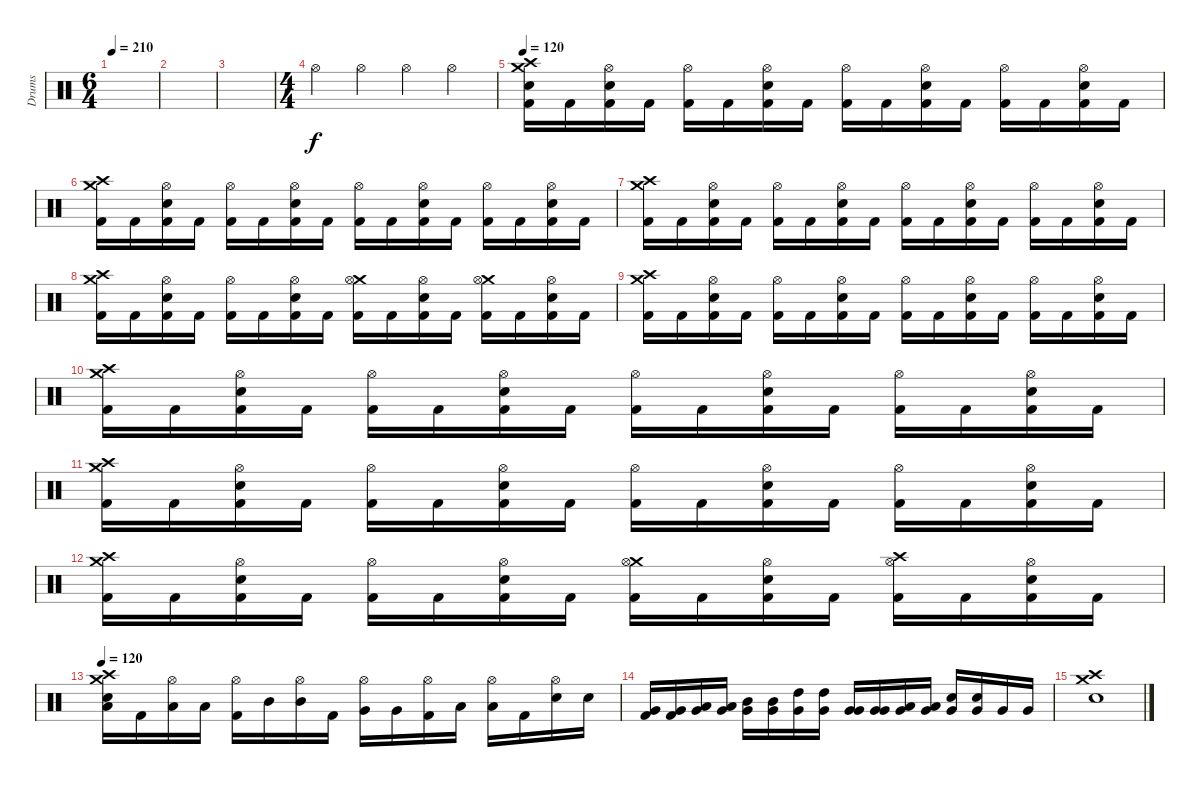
\track ("Drums" "Drums") {instrument percussion}
\staff {score}
\articulation defaults
\ts (6 4)
\tempo 210
\clef neutral
\ks c
|
|
|
\ts (4 4)
"Hi-Hat (open)".4 "Hi-Hat (open)".4 "Hi-Hat (open)".4 "Hi-Hat (open)".4 |
\tempo 120
("Electric Snare (hit)" "Crash high (hit)" "Crash medium (hit)" "Kick (hit) 2").16 "Kick (hit) 2".16 ("Electric Snare (hit)" "Hi-Hat (open)" "Kick (hit) 2").16 "Kick (hit) 2".16 ("Hi-Hat (open)" "Kick (hit) 2").16 "Kick (hit) 2".16 ("Electric Snare (hit)" "Hi-Hat (open)" "Kick (hit) 2").16 "Kick (hit) 2".16 ("Hi-Hat (open)" "Kick (hit) 2").16 "Kick (hit) 2".16 ("Electric Snare (hit)" "Hi-Hat (open)" "Kick (hit) 2").16 "Kick (hit) 2".16 ("Hi-Hat (open)" "Kick (hit) 2").16 "Kick (hit) 2".16 ("Electric Snare (hit)" "Hi-Hat (open)" "Kick (hit) 2").16 "Kick (hit) 2".16 |
("Crash high (hit)" "Crash medium (hit)" "Kick (hit) 2").16 "Kick (hit) 2".16 ("Electric Snare (hit)" "Hi-Hat (open)" "Kick (hit) 2").16 "Kick (hit) 2".16 ("Hi-Hat (open)" "Kick (hit) 2").16 "Kick (hit) 2".16 ("Electric Snare (hit)" "Hi-Hat (open)" "Kick (hit) 2").16 "Kick (hit) 2".16 ("Hi-Hat (open)" "Kick (hit) 2").16 "Kick (hit) 2".16 ("Electric Snare (hit)" "Hi-Hat (open)" "Kick (hit) 2").16 "Kick (hit) 2".16 ("Hi-Hat (open)" "Kick (hit) 2").16 "Kick (hit) 2".16 ("Electric Snare (hit)" "Hi-Hat (open)" "Kick (hit) 2").16 "Kick (hit) 2".16 |
("Crash high (hit)" "Crash medium (hit)" "Kick (hit) 2").16 "Kick (hit) 2".16 ("Electric Snare (hit)" "Hi-Hat (open)" "Kick (hit) 2").16 "Kick (hit) 2".16 ("Hi-Hat (open)" "Kick (hit) 2").16 "Kick (hit) 2".16 ("Electric Snare (hit)" "Hi-Hat (open)" "Kick (hit) 2").16 "Kick (hit) 2".16 ("Hi-Hat (open)" "Kick (hit) 2").16 "Kick (hit) 2".16 ("Electric Snare (hit)" "Hi-Hat (open)" "Kick (hit) 2").16 "Kick (hit) 2".16 ("Hi-Hat (open)" "Kick (hit) 2").16 "Kick (hit) 2".16 ("Electric Snare (hit)" "Hi-Hat (open)" "Kick (hit) 2").16 "Kick (hit) 2".16 |
("Crash high (hit)" "Crash medium (hit)" "Kick (hit) 2").16 "Kick (hit) 2".16 ("Electric Snare (hit)" "Hi-Hat (open)" "Kick (hit) 2").16 "Kick (hit) 2".16 ("Hi-Hat (open)" "Kick (hit) 2").16 "Kick (hit) 2".16 ("Electric Snare (hit)" "Hi-Hat (open)" "Kick (hit) 2").16 "Kick (hit) 2".16 ("Crash medium (hit)" "Hi-Hat (open)" "Kick (hit) 2").16 "Kick (hit) 2".16 ("Electric Snare (hit)" "Hi-Hat (open)" "Kick (hit) 2").16 "Kick (hit) 2".16 ("Crash medium (hit)" "Hi-Hat (open)" "Kick (hit) 2").16 "Kick (hit) 2".16 ("Electric Snare (hit)" "Hi-Hat (open)" "Kick (hit) 2").16 "Kick (hit) 2".16 |
("Crash high (hit)" "Crash medium (hit)" "Kick (hit) 2").16 "Kick (hit) 2".16 ("Electric Snare (hit)" "Hi-Hat (open)" "Kick (hit) 2").16 "Kick (hit) 2".16 ("Hi-Hat (open)" "Kick (hit) 2").16 "Kick (hit) 2".16 ("Electric Snare (hit)" "Hi-Hat (open)" "Kick (hit) 2").16 "Kick (hit) 2".16 ("Hi-Hat (open)" "Kick (hit) 2").16 "Kick (hit) 2".16 ("Electric Snare (hit)" "Hi-Hat (open)" "Kick (hit) 2").16 "Kick (hit) 2".16 ("Hi-Hat (open)" "Kick (hit) 2").16 "Kick (hit) 2".16 ("Electric Snare (hit)" "Hi-Hat (open)" "Kick (hit) 2").16 "Kick (hit) 2".16 |
("Crash high (hit)" "Crash medium (hit)" "Kick (hit) 2").16 "Kick (hit) 2".16 ("Electric Snare (hit)" "Hi-Hat (open)" "Kick (hit) 2").16 "Kick (hit) 2".16 ("Hi-Hat (open)" "Kick (hit) 2").16 "Kick (hit) 2".16 ("Electric Snare (hit)" "Hi-Hat (open)" "Kick (hit) 2").16 "Kick (hit) 2".16 ("Hi-Hat (open)" "Kick (hit) 2").16 "Kick (hit) 2".16 ("Electric Snare (hit)" "Hi-Hat (open)" "Kick (hit) 2").16 "Kick (hit) 2".16 ("Hi-Hat (open)" "Kick (hit) 2").16 "Kick (hit) 2".16 ("Electric Snare (hit)" "Hi-Hat (open)" "Kick (hit) 2").16 "Kick (hit) 2".16 |
("Crash high (hit)" "Crash medium (hit)" "Kick (hit) 2").16 "Kick (hit) 2".16 ("Electric Snare (hit)" "Hi-Hat (open)" "Kick (hit) 2").16 "Kick (hit) 2".16 ("Hi-Hat (open)" "Kick (hit) 2").16 "Kick (hit) 2".16 ("Electric Snare (hit)" "Hi-Hat (open)" "Kick (hit) 2").16 "Kick (hit) 2".16 ("Hi-Hat (open)" "Kick (hit) 2").16 "Kick (hit) 2".16 ("Electric Snare (hit)" "Hi-Hat (open)" "Kick (hit) 2").16 "Kick (hit) 2".16 ("Hi-Hat (open)" "Kick (hit) 2").16 "Kick (hit) 2".16 ("Electric Snare (hit)" "Hi-Hat (open)" "Kick (hit) 2").16 "Kick (hit) 2".16 |
("Crash high (hit)" "Crash medium (hit)" "Kick (hit) 2").16 "Kick (hit) 2".16 ("Electric Snare (hit)" "Hi-Hat (open)" "Kick (hit) 2").16 "Kick (hit) 2".16 ("Hi-Hat (open)" "Kick (hit) 2").16 "Kick (hit) 2".16 ("Electric Snare (hit)" "Hi-Hat (open)" "Kick (hit) 2").16 "Kick (hit) 2".16 ("Crash medium (hit)" "Hi-Hat (open)" "Kick (hit) 2").16 "Kick (hit) 2".16 ("Electric Snare (hit)" "Hi-Hat (open)" "Kick (hit) 2").16 "Kick (hit) 2".16 ("Crash high (hit)" "Hi-Hat (open)" "Kick (hit) 2").16 "Kick (hit) 2".16 ("Electric Snare (hit)" "Hi-Hat (open)" "Kick (hit) 2").16 "Kick (hit) 2".16 |
\tempo 120
("Crash high (hit)" "Electric Snare (hit)" "Low Tom (hit)" "Crash medium (hit)").16 "Kick (hit) 2".16 ("Hi-Hat (open)" "Low Tom (hit)").16 "Low Tom (hit)".16 ("Hi-Hat (open)" "Kick (hit) 2").16 "Mid Tom (hit)".16 ("Hi-Hat (open)" "Mid Tom (hit)").16 "Kick (hit) 2".16 ("Hi-Hat (open)" "Very Low Tom (hit)").16 "Very Low Tom (hit)".16 ("Hi-Hat (open)" "Kick (hit) 2").16 "Low Floor Tom (hit)".16 ("Hi-Hat (open)" "Low Floor Tom (hit)").16 "Kick (hit) 2".16 ("Hi-Hat (open)" "Electric Snare (hit)").16 "Electric Snare (hit)".16 |
("Kick (hit) 2" "Very Low Tom (hit)").16 ("Kick (hit) 2" "Very Low Tom (hit)").16 ("Low Tom (hit)" "Very Low Tom (hit)").16 ("Low Tom (hit)" "Very Low Tom (hit)").16 ("Mid Tom (hit)" "Very Low Tom (hit)").16 ("Mid Tom (hit)" "Very Low Tom (hit)").16 ("High Tom (hit)" "Very Low Tom (hit)").16 ("High Tom (hit)" "Very Low Tom (hit)").16 ("Very Low Tom (hit)" "Very Low Tom (hit)").16 ("Very Low Tom (hit)" "Very Low Tom (hit)").16 ("Low Floor Tom (hit)" "Very Low Tom (hit)").16 ("Low Floor Tom (hit)" "Very Low Tom (hit)").16 ("Electric Snare (hit)" "Very Low Tom (hit)").16 ("Electric Snare (hit)" "Very Low Tom (hit)").16 "Very Low Tom (hit)".16 "Very Low Tom (hit)".16 |
("Crash medium (hit)" "Crash high (hit)" "Electric Snare (hit)").1
